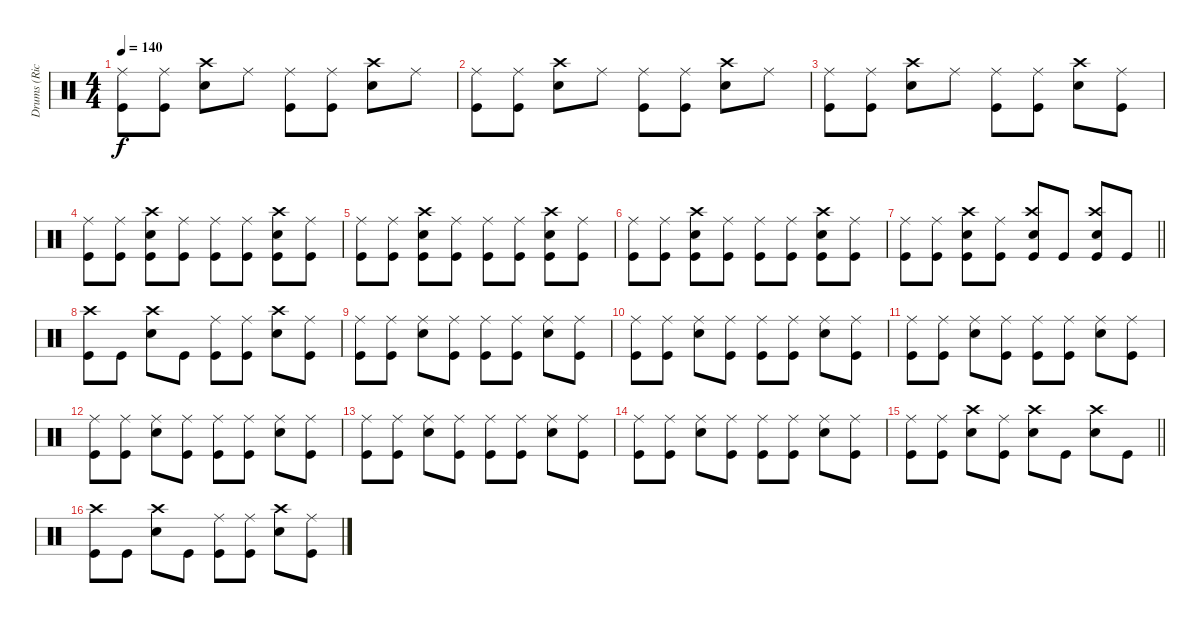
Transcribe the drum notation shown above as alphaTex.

\track ("Drums (Rick)" "Drums (Ric") {instrument percussion}
\staff {score}
\articulation defaults
\ts (4 4)
\tempo 140
\clef neutral
\ks aminor
("Ride (middle)" "Kick (hit)").8{dy f} ("Ride (middle)" "Kick (hit)").8 ("Crash high (hit)" "Snare (hit) 2").8 "Ride (middle)".8 ("Ride (middle)" "Kick (hit)").8 ("Ride (middle)" "Kick (hit)").8 ("Crash high (hit)" "Snare (hit) 2").8 "Ride (middle)".8 |
("Ride (middle)" "Kick (hit)").8 ("Ride (middle)" "Kick (hit)").8 ("Crash high (hit)" "Snare (hit) 2").8 "Ride (middle)".8 ("Ride (middle)" "Kick (hit)").8 ("Ride (middle)" "Kick (hit)").8 ("Crash high (hit)" "Snare (hit) 2").8 "Ride (middle)".8 |
("Ride (middle)" "Kick (hit)").8 ("Ride (middle)" "Kick (hit)").8 ("Crash high (hit)" "Snare (hit) 2").8 "Ride (middle)".8 ("Ride (middle)" "Kick (hit)").8 ("Ride (middle)" "Kick (hit)").8 ("Crash high (hit)" "Snare (hit) 2").8 ("Ride (middle)" "Kick (hit)").8 |
("Ride (middle)" "Kick (hit)").8 ("Ride (middle)" "Kick (hit)").8 ("Crash high (hit)" "Snare (hit) 2" "Kick (hit)").8 ("Ride (middle)" "Kick (hit)").8 ("Ride (middle)" "Kick (hit)").8 ("Ride (middle)" "Kick (hit)").8 ("Crash high (hit)" "Snare (hit) 2" "Kick (hit)").8 ("Ride (middle)" "Kick (hit)").8 |
("Ride (middle)" "Kick (hit)").8 ("Ride (middle)" "Kick (hit)").8 ("Crash high (hit)" "Snare (hit) 2" "Kick (hit)").8 ("Ride (middle)" "Kick (hit)").8 ("Ride (middle)" "Kick (hit)").8 ("Ride (middle)" "Kick (hit)").8 ("Crash high (hit)" "Snare (hit) 2" "Kick (hit)").8 ("Ride (middle)" "Kick (hit)").8 |
("Ride (middle)" "Kick (hit)").8 ("Ride (middle)" "Kick (hit)").8 ("Crash high (hit)" "Snare (hit) 2" "Kick (hit)").8 ("Ride (middle)" "Kick (hit)").8 ("Ride (middle)" "Kick (hit)").8 ("Ride (middle)" "Kick (hit)").8 ("Crash high (hit)" "Snare (hit) 2" "Kick (hit)").8 ("Ride (middle)" "Kick (hit)").8 |
\barLineRight lightlight
("Ride (middle)" "Kick (hit)").8 ("Ride (middle)" "Kick (hit)").8 ("Crash high (hit)" "Snare (hit) 2" "Kick (hit)").8 ("Ride (middle)" "Kick (hit)").8 ("Crash high (hit)" "Snare (hit) 2" "Kick (hit)").8 "Kick (hit)".8 ("Crash high (hit)" "Snare (hit) 2" "Kick (hit)").8 "Kick (hit)".8 |
("Crash high (hit)" "Kick (hit)").8 "Kick (hit)".8 ("Crash high (hit)" "Snare (hit) 2").8 "Kick (hit)".8 ("Ride (middle)" "Kick (hit)").8 ("Ride (middle)" "Kick (hit)").8 ("Crash high (hit)" "Snare (hit) 2").8 ("Ride (middle)" "Kick (hit)").8 |
("Ride (middle)" "Kick (hit)").8 ("Ride (middle)" "Kick (hit)").8 ("Ride (middle)" "Snare (hit) 2").8 ("Ride (middle)" "Kick (hit)").8 ("Ride (middle)" "Kick (hit)").8 ("Ride (middle)" "Kick (hit)").8 ("Ride (middle)" "Snare (hit) 2").8 ("Ride (middle)" "Kick (hit)").8 |
("Ride (middle)" "Kick (hit)").8 ("Ride (middle)" "Kick (hit)").8 ("Ride (middle)" "Snare (hit) 2").8 ("Ride (middle)" "Kick (hit)").8 ("Ride (middle)" "Kick (hit)").8 ("Ride (middle)" "Kick (hit)").8 ("Ride (middle)" "Snare (hit) 2").8 ("Ride (middle)" "Kick (hit)").8 |
("Ride (middle)" "Kick (hit)").8 ("Ride (middle)" "Kick (hit)").8 ("Ride (middle)" "Snare (hit) 2").8 ("Ride (middle)" "Kick (hit)").8 ("Ride (middle)" "Kick (hit)").8 ("Ride (middle)" "Kick (hit)").8 ("Ride (middle)" "Snare (hit) 2").8 ("Ride (middle)" "Kick (hit)").8 |
("Ride (middle)" "Kick (hit)").8 ("Ride (middle)" "Kick (hit)").8 ("Ride (middle)" "Snare (hit) 2").8 ("Ride (middle)" "Kick (hit)").8 ("Ride (middle)" "Kick (hit)").8 ("Ride (middle)" "Kick (hit)").8 ("Ride (middle)" "Snare (hit) 2").8 ("Ride (middle)" "Kick (hit)").8 |
("Ride (middle)" "Kick (hit)").8 ("Ride (middle)" "Kick (hit)").8 ("Ride (middle)" "Snare (hit) 2").8 ("Ride (middle)" "Kick (hit)").8 ("Ride (middle)" "Kick (hit)").8 ("Ride (middle)" "Kick (hit)").8 ("Ride (middle)" "Snare (hit) 2").8 ("Ride (middle)" "Kick (hit)").8 |
("Ride (middle)" "Kick (hit)").8 ("Ride (middle)" "Kick (hit)").8 ("Ride (middle)" "Snare (hit) 2").8 ("Ride (middle)" "Kick (hit)").8 ("Ride (middle)" "Kick (hit)").8 ("Ride (middle)" "Kick (hit)").8 ("Ride (middle)" "Snare (hit) 2").8 ("Ride (middle)" "Kick (hit)").8 |
\barLineRight lightlight
("Ride (middle)" "Kick (hit)").8 ("Ride (middle)" "Kick (hit)").8 ("Crash high (hit)" "Snare (hit) 2").8 ("Ride (middle)" "Kick (hit)").8 ("Crash high (hit)" "Snare (hit) 2").8 "Kick (hit)".8 ("Crash high (hit)" "Snare (hit) 2").8 "Kick (hit)".8 |
("Crash high (hit)" "Kick (hit)").8 "Kick (hit)".8 ("Crash high (hit)" "Snare (hit) 2").8 "Kick (hit)".8 ("Ride (middle)" "Kick (hit)").8 ("Ride (middle)" "Kick (hit)").8 ("Crash high (hit)" "Snare (hit) 2").8 ("Ride (middle)" "Kick (hit)").8
